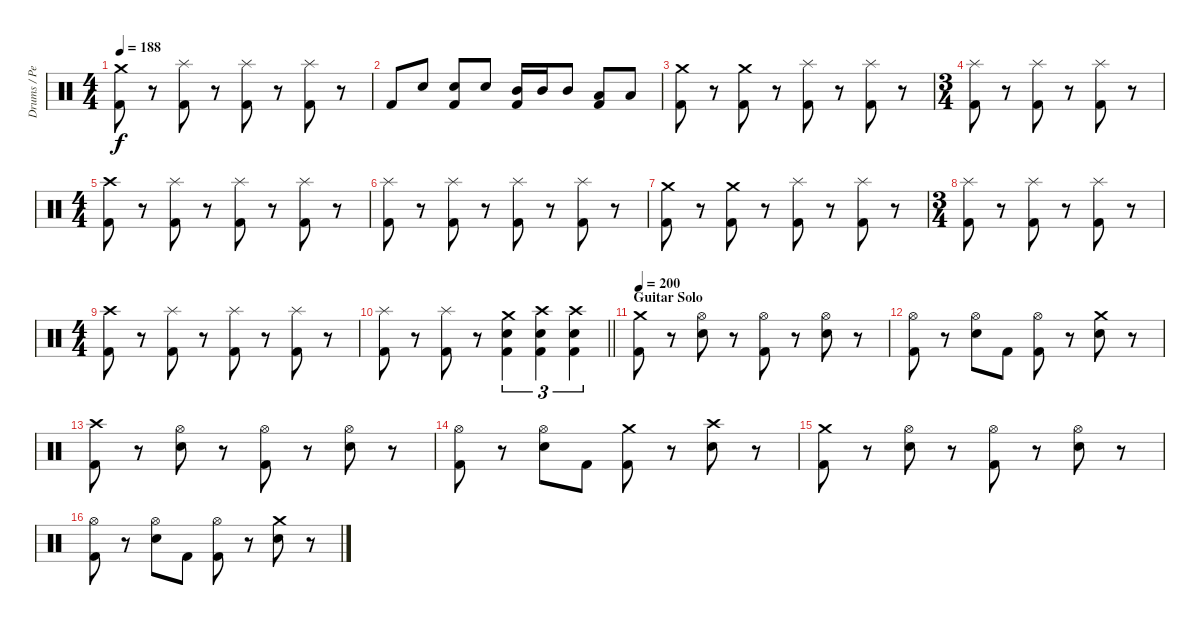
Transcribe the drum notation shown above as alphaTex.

\track ("Drums / Percussion" "Drums / Pe") {instrument percussion}
\staff {score}
\articulation defaults
\ts (4 4)
\tempo 188
\clef neutral
\ks c
("Crash medium (hit)" "Kick (hit) 2").8{dy f} r.8 ("Splash (hit)" "Kick (hit) 2").8 r.8 ("Splash (hit)" "Kick (hit) 2").8 r.8 ("Splash (hit)" "Kick (hit) 2").8 r.8 |
"Kick (hit) 2".8 "Electric Snare (hit)".8 ("Electric Snare (hit)" "Kick (hit) 2").8 "Electric Snare (hit)".8 ("Mid Tom (hit)" "Kick (hit) 2").16 "Mid Tom (hit)".16 "Mid Tom (hit)".8 ("Low Tom (hit)" "Kick (hit) 2").8 "Low Tom (hit)".8 |
("Crash medium (hit)" "Kick (hit) 2").8 r.8 ("Crash medium (hit)" "Kick (hit) 2").8 r.8 ("Splash (hit)" "Kick (hit) 2").8 r.8 ("Splash (hit)" "Kick (hit) 2").8 r.8 |
\ts (3 4)
("Splash (hit)" "Kick (hit) 2").8 r.8 ("Splash (hit)" "Kick (hit) 2").8 r.8 ("Splash (hit)" "Kick (hit) 2").8 r.8 |
\ts (4 4)
("Crash high (hit)" "Kick (hit) 2").8 r.8 ("Splash (hit)" "Kick (hit) 2").8 r.8 ("Splash (hit)" "Kick (hit) 2").8 r.8 ("Splash (hit)" "Kick (hit) 2").8 r.8 |
("Splash (hit)" "Kick (hit) 2").8 r.8 ("Splash (hit)" "Kick (hit) 2").8 r.8 ("Splash (hit)" "Kick (hit) 2").8 r.8 ("Splash (hit)" "Kick (hit) 2").8 r.8 |
("Crash medium (hit)" "Kick (hit) 2").8 r.8 ("Crash medium (hit)" "Kick (hit) 2").8 r.8 ("Splash (hit)" "Kick (hit) 2").8 r.8 ("Splash (hit)" "Kick (hit) 2").8 r.8 |
\ts (3 4)
("Splash (hit)" "Kick (hit) 2").8 r.8 ("Splash (hit)" "Kick (hit) 2").8 r.8 ("Splash (hit)" "Kick (hit) 2").8 r.8 |
\ts (4 4)
("Crash high (hit)" "Kick (hit) 2").8 r.8 ("Splash (hit)" "Kick (hit) 2").8 r.8 ("Splash (hit)" "Kick (hit) 2").8 r.8 ("Splash (hit)" "Kick (hit) 2").8 r.8 |
\barLineRight lightlight
("Splash (hit)" "Kick (hit) 2").8 r.8 ("Splash (hit)" "Kick (hit) 2").8 r.8 ("Crash medium (hit)" "Electric Snare (hit)" "Kick (hit) 2").4{tu (3 2)} ("Crash high (hit)" "Electric Snare (hit)" "Kick (hit) 2").4{tu (3 2)} ("Crash high (hit)" "Electric Snare (hit)" "Kick (hit) 2").4{tu (3 2)} |
\section ("" "Guitar Solo")
\tempo 200
("Crash medium (hit)" "Kick (hit) 2").8 r.8 ("Hi-Hat (open)" "Electric Snare (hit)").8 r.8 ("Hi-Hat (open)" "Kick (hit) 2").8 r.8 ("Hi-Hat (open)" "Electric Snare (hit)").8 r.8 |
("Hi-Hat (open)" "Kick (hit) 2").8 r.8 ("Hi-Hat (open)" "Electric Snare (hit)").8 "Kick (hit) 2".8 ("Hi-Hat (open)" "Kick (hit) 2").8 r.8 ("Crash medium (hit)" "Electric Snare (hit)").8 r.8 |
("Crash high (hit)" "Kick (hit) 2").8 r.8 ("Hi-Hat (open)" "Electric Snare (hit)").8 r.8 ("Hi-Hat (open)" "Kick (hit) 2").8 r.8 ("Hi-Hat (open)" "Electric Snare (hit)").8 r.8 |
("Hi-Hat (open)" "Kick (hit) 2").8 r.8 ("Hi-Hat (open)" "Electric Snare (hit)").8 "Kick (hit) 2".8 ("Crash medium (hit)" "Kick (hit) 2").8 r.8 ("Crash high (hit)" "Electric Snare (hit)").8 r.8 |
("Crash medium (hit)" "Kick (hit) 2").8 r.8 ("Hi-Hat (open)" "Electric Snare (hit)").8 r.8 ("Hi-Hat (open)" "Kick (hit) 2").8 r.8 ("Hi-Hat (open)" "Electric Snare (hit)").8 r.8 |
("Hi-Hat (open)" "Kick (hit) 2").8 r.8 ("Hi-Hat (open)" "Electric Snare (hit)").8 "Kick (hit) 2".8 ("Hi-Hat (open)" "Kick (hit) 2").8 r.8 ("Crash medium (hit)" "Electric Snare (hit)").8 r.8
